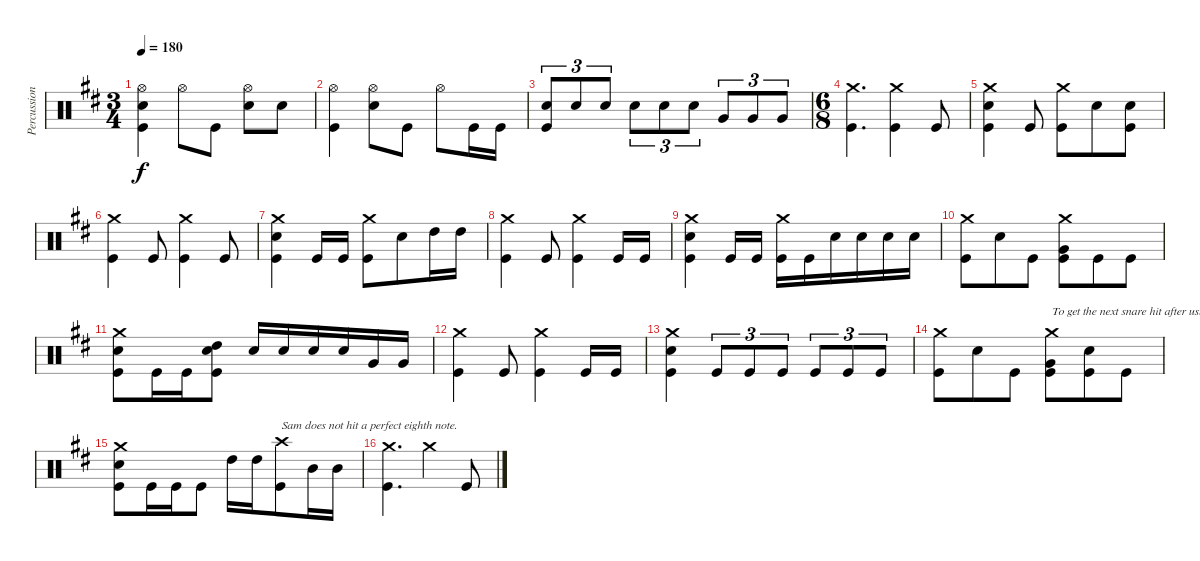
\track ("Percussion" "Percussion") {instrument percussion}
\staff {score}
\articulation defaults
\ts (3 4)
\tempo 180
\clef neutral
\ks d
("Hi-Hat (open)" "Electric Snare (hit)" "Kick (hit)").4{dy f} "Hi-Hat (open)".8 "Kick (hit)".8 ("Hi-Hat (open)" "Electric Snare (hit)").8 "Electric Snare (hit)".8 |
("Hi-Hat (open)" "Kick (hit)").4 ("Hi-Hat (open)" "Electric Snare (hit)").8 "Kick (hit)".8 "Hi-Hat (open)".8 "Kick (hit)".16 "Kick (hit)".16 |
("Electric Snare (hit)" "Kick (hit)").8{tu (3 2)} "Electric Snare (hit)".8{tu (3 2)} "Electric Snare (hit)".8{tu (3 2)} "Electric Snare (hit)".8{tu (3 2)} "Electric Snare (hit)".8{tu (3 2)} "Electric Snare (hit)".8{tu (3 2)} "Very Low Tom (hit)".8{tu (3 2)} "Very Low Tom (hit)".8{tu (3 2)} "Very Low Tom (hit)".8{tu (3 2)} |
\ts (6 8)
("Crash medium (hit)" "Kick (hit)").4{d} ("Crash medium (hit)" "Kick (hit)").4 "Kick (hit)".8 |
("Crash medium (hit)" "Electric Snare (hit)" "Kick (hit)").4 "Kick (hit)".8 ("Crash medium (hit)" "Kick (hit)").8 "Electric Snare (hit)".8 ("Electric Snare (hit)" "Kick (hit)").8 |
("Crash medium (hit)" "Kick (hit)").4 "Kick (hit)".8 ("Crash medium (hit)" "Kick (hit)").4 "Kick (hit)".8 |
("Crash medium (hit)" "Electric Snare (hit)" "Kick (hit)").4 "Kick (hit)".16 "Kick (hit)".16 ("Crash medium (hit)" "Kick (hit)").8 "Electric Snare (hit)".8 "High Tom (hit)".16 "High Tom (hit)".16 |
("Crash medium (hit)" "Kick (hit)").4 "Kick (hit)".8 ("Crash medium (hit)" "Kick (hit)").4 "Kick (hit)".16 "Kick (hit)".16 |
("Crash medium (hit)" "Electric Snare (hit)" "Kick (hit)").4 "Kick (hit)".16 "Kick (hit)".16 ("Crash medium (hit)" "Kick (hit)").16 "Kick (hit)".16 "Electric Snare (hit)".16 "Electric Snare (hit)".16 "Electric Snare (hit)".16 "Electric Snare (hit)".16 |
("Crash medium (hit)" "Kick (hit)").8 "Electric Snare (hit)".8 "Kick (hit)".8 ("Crash medium (hit)" "Very Low Tom (hit)" "Kick (hit)").8 "Kick (hit)".8 "Kick (hit)".8 |
("Crash medium (hit)" "Electric Snare (hit)" "Kick (hit)").8 "Kick (hit)".16 "Kick (hit)".16 ("Electric Snare (hit)" "High Tom (hit)" "Kick (hit)").8 "Electric Snare (hit)".16 "Electric Snare (hit)".16 "Electric Snare (hit)".16 "Electric Snare (hit)".16 "Very Low Tom (hit)".16 "Very Low Tom (hit)".16 |
("Crash medium (hit)" "Kick (hit)").4 "Kick (hit)".8 ("Crash medium (hit)" "Kick (hit)").4 "Kick (hit)".16 "Kick (hit)".16 |
("Crash medium (hit)" "Electric Snare (hit)" "Kick (hit)").4 "Kick (hit)".8{tu (3 2)} "Kick (hit)".8{tu (3 2)} "Kick (hit)".8{tu (3 2)} "Kick (hit)".8{tu (3 2)} "Kick (hit)".8{tu (3 2)} "Kick (hit)".8{tu (3 2)} |
("Crash medium (hit)" "Kick (hit)").8 "Electric Snare (hit)".8 "Kick (hit)".8 ("Crash medium (hit)" "Very Low Tom (hit)" "Kick (hit)").8{txt "To get the next snare hit after using both hands,"} ("Electric Snare (hit)" "Kick (hit)").8 "Kick (hit)".8 |
("Crash medium (hit)" "Electric Snare (hit)" "Kick (hit)").8 "Kick (hit)".16 "Kick (hit)".16 "Kick (hit)".8 "High Tom (hit)".16 "High Tom (hit)".16 ("Crash high (hit)" "Kick (hit)").8{txt "Sam does not hit a perfect eighth note."} "Mid Tom (hit)".16 "Mid Tom (hit)".16 |
("Crash medium (hit)" "Kick (hit)").4{d} "Crash medium (hit)".4 "Kick (hit)".8
